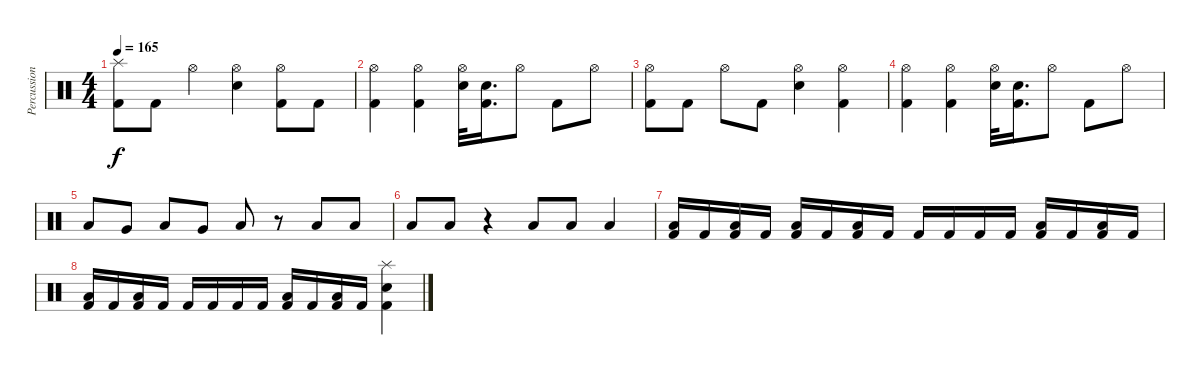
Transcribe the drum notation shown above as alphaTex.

\track ("Percussions" "Percussion") {instrument percussion}
\staff {score}
\articulation defaults
\ts (4 4)
\tempo 165
\clef neutral
\ks c
("Splash (hit)" "Kick (hit) 2").8{dy f} "Kick (hit) 2".8 "Hi-Hat (open)".4 ("Hi-Hat (open)" "Electric Snare (hit)").4 ("Hi-Hat (open)" "Kick (hit) 2").8 "Kick (hit) 2".8 |
("Hi-Hat (open)" "Kick (hit) 2").4 ("Hi-Hat (open)" "Kick (hit) 2").4 ("Hi-Hat (open)" "Electric Snare (hit)").32 ("Electric Snare (hit)" "Kick (hit) 2").16{d} "Hi-Hat (open)".8 "Kick (hit) 2".8 "Hi-Hat (open)".8 |
("Hi-Hat (open)" "Kick (hit) 2").8 "Kick (hit) 2".8 "Hi-Hat (open)".8 "Kick (hit) 2".8 ("Hi-Hat (open)" "Electric Snare (hit)").4 ("Hi-Hat (open)" "Kick (hit) 2").4 |
("Hi-Hat (open)" "Kick (hit) 2").4 ("Hi-Hat (open)" "Kick (hit) 2").4 ("Hi-Hat (open)" "Electric Snare (hit)").32 ("Electric Snare (hit)" "Kick (hit) 2").16{d} "Hi-Hat (open)".8 "Kick (hit) 2".8 "Hi-Hat (open)".8 |
"Low Floor Tom (hit)".8 "Very Low Tom (hit)".8 "Low Floor Tom (hit)".8 "Very Low Tom (hit)".8 "Low Floor Tom (hit)".8 r.8 "Low Floor Tom (hit)".8 "Low Floor Tom (hit)".8 |
"Low Floor Tom (hit)".8 "Low Floor Tom (hit)".8 r.4 "Low Floor Tom (hit)".8 "Low Floor Tom (hit)".8 "Low Floor Tom (hit)".4 |
("Low Floor Tom (hit)" "Kick (hit) 2").16 "Kick (hit) 2".16 ("Low Floor Tom (hit)" "Kick (hit) 2").16 "Kick (hit) 2".16 ("Low Floor Tom (hit)" "Kick (hit) 2").16 "Kick (hit) 2".16 ("Low Floor Tom (hit)" "Kick (hit) 2").16 "Kick (hit) 2".16 "Kick (hit) 2".16 "Kick (hit) 2".16 "Kick (hit) 2".16 "Kick (hit) 2".16 ("Low Floor Tom (hit)" "Kick (hit) 2").16 "Kick (hit) 2".16 ("Low Floor Tom (hit)" "Kick (hit) 2").16 "Kick (hit) 2".16 |
("Low Floor Tom (hit)" "Kick (hit) 2").16 "Kick (hit) 2".16 ("Low Floor Tom (hit)" "Kick (hit) 2").16 "Kick (hit) 2".16 "Kick (hit) 2".16 "Kick (hit) 2".16 "Kick (hit) 2".16 "Kick (hit) 2".16 ("Low Floor Tom (hit)" "Kick (hit) 2").16 "Kick (hit) 2".16 ("Low Floor Tom (hit)" "Kick (hit) 2").16 "Kick (hit) 2".16 ("Splash (hit)" "Electric Snare (hit)" "Kick (hit) 2").4
